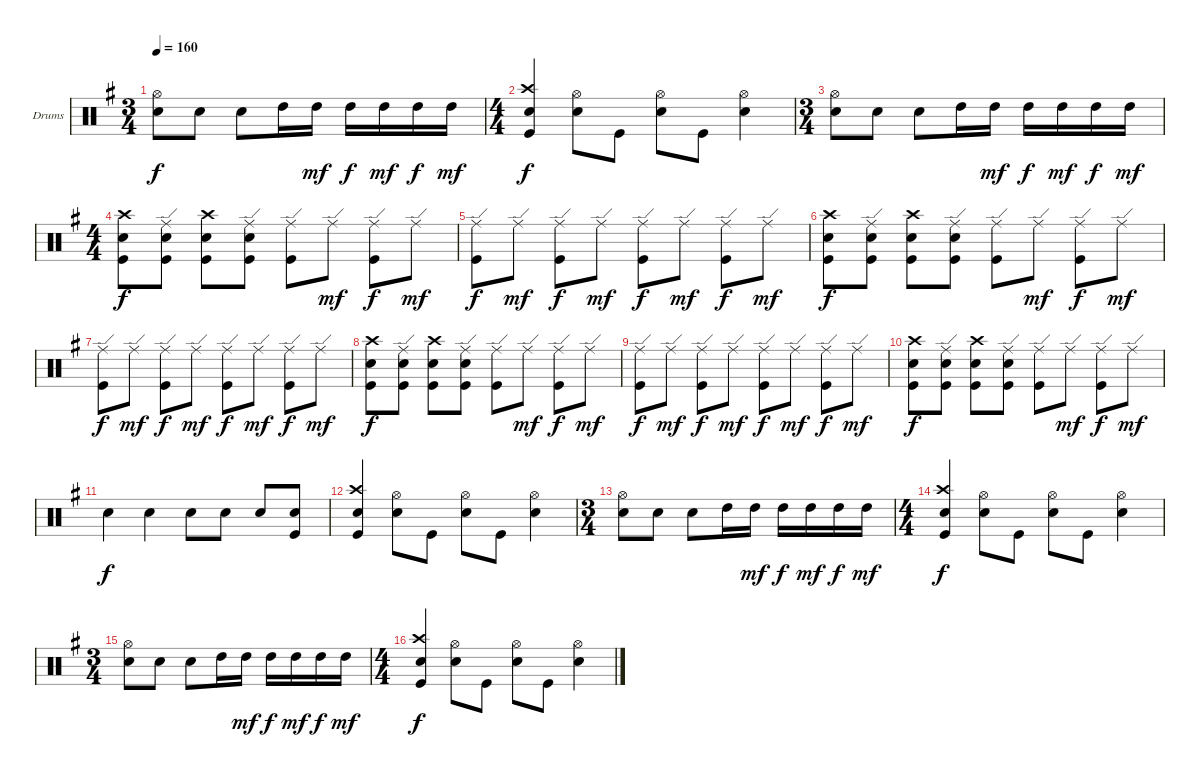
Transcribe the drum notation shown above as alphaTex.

\defaultSystemsLayout 4
\bracketExtendMode groupsimilarinstruments
\firstSystemTrackNameOrientation horizontal
\otherSystemsTrackNameOrientation horizontal
\track ("Drumkit" "Drums") {instrument percussion}
\staff {score}
\articulation defaults
\ts (3 4)
\tempo 160
\clef neutral
\scale
1.07314
\ks g
("Hi-Hat (open)" "Snare (hit) 2").8{dy f} "Snare (hit) 2".8 "Snare (hit) 2".8 "High Tom (hit)".16 "High Tom (hit)".16{dy mf} "High Tom (hit)".16{dy f} "High Tom (hit)".16{dy mf} "High Tom (hit)".16{dy f} "High Tom (hit)".16{dy mf} |
\ts (4 4)
\scale
0.92686 ("Crash high (hit)" "Snare (hit) 2" "Kick (hit)").4{dy f} ("Hi-Hat (open)" "Snare (hit) 2").8 "Kick (hit)".8 ("Hi-Hat (open)" "Snare (hit) 2").8 "Kick (hit)".8 ("Hi-Hat (open)" "Snare (hit) 2").4 |
\ts (3 4)
\scale
1.07314 ("Hi-Hat (open)" "Snare (hit) 2").8 "Snare (hit) 2".8 "Snare (hit) 2".8 "High Tom (hit)".16 "High Tom (hit)".16{dy mf} "High Tom (hit)".16{dy f} "High Tom (hit)".16{dy mf} "High Tom (hit)".16{dy f} "High Tom (hit)".16{dy mf} |
\ts (4 4)
\scale
0.92686 ("Crash high (hit)" "Snare (hit) 2" "Kick (hit)").8{dy f} ("Ride (edge)" "Snare (hit) 2" "Kick (hit)").8 ("Crash high (hit)" "Snare (hit) 2" "Kick (hit)").8 ("Ride (edge)" "Snare (hit) 2" "Kick (hit)").8 ("Ride (edge)" "Kick (hit)").8 "Ride (edge)".8{dy mf} ("Ride (edge)" "Kick (hit)").8{dy f} "Ride (edge)".8{dy mf} |
\scale
1.04288 ("Ride (edge)" "Kick (hit)").8{dy f} "Ride (edge)".8{dy mf} ("Ride (edge)" "Kick (hit)").8{dy f} "Ride (edge)".8{dy mf} ("Ride (edge)" "Kick (hit)").8{dy f} "Ride (edge)".8{dy mf} ("Ride (edge)" "Kick (hit)").8{dy f} "Ride (edge)".8{dy mf} |
\scale
0.957125 ("Crash high (hit)" "Snare (hit) 2" "Kick (hit)").8{dy f} ("Ride (edge)" "Snare (hit) 2" "Kick (hit)").8 ("Crash high (hit)" "Snare (hit) 2" "Kick (hit)").8 ("Ride (edge)" "Snare (hit) 2" "Kick (hit)").8 ("Ride (edge)" "Kick (hit)").8 "Ride (edge)".8{dy mf} ("Ride (edge)" "Kick (hit)").8{dy f} "Ride (edge)".8{dy mf} |
\scale
1.04288 ("Ride (edge)" "Kick (hit)").8{dy f} "Ride (edge)".8{dy mf} ("Ride (edge)" "Kick (hit)").8{dy f} "Ride (edge)".8{dy mf} ("Ride (edge)" "Kick (hit)").8{dy f} "Ride (edge)".8{dy mf} ("Ride (edge)" "Kick (hit)").8{dy f} "Ride (edge)".8{dy mf} |
\scale
0.957125 ("Crash high (hit)" "Snare (hit) 2" "Kick (hit)").8{dy f} ("Ride (edge)" "Snare (hit) 2" "Kick (hit)").8 ("Crash high (hit)" "Snare (hit) 2" "Kick (hit)").8 ("Ride (edge)" "Snare (hit) 2" "Kick (hit)").8 ("Ride (edge)" "Kick (hit)").8 "Ride (edge)".8{dy mf} ("Ride (edge)" "Kick (hit)").8{dy f} "Ride (edge)".8{dy mf} |
\scale
1.04288 ("Ride (edge)" "Kick (hit)").8{dy f} "Ride (edge)".8{dy mf} ("Ride (edge)" "Kick (hit)").8{dy f} "Ride (edge)".8{dy mf} ("Ride (edge)" "Kick (hit)").8{dy f} "Ride (edge)".8{dy mf} ("Ride (edge)" "Kick (hit)").8{dy f} "Ride (edge)".8{dy mf} |
\scale
0.957125 ("Crash high (hit)" "Snare (hit) 2" "Kick (hit)").8{dy f} ("Ride (edge)" "Snare (hit) 2" "Kick (hit)").8 ("Crash high (hit)" "Snare (hit) 2" "Kick (hit)").8 ("Ride (edge)" "Snare (hit) 2" "Kick (hit)").8 ("Ride (edge)" "Kick (hit)").8 "Ride (edge)".8{dy mf} ("Ride (edge)" "Kick (hit)").8{dy f} "Ride (edge)".8{dy mf} |
\scale
1.04288 "Snare (hit) 2".4{dy f} "Snare (hit) 2".4 "Snare (hit) 2".8 "Snare (hit) 2".8 "Snare (hit) 2".8 ("Snare (hit) 2" "Kick (hit)").8 |
\scale
0.957125 ("Crash high (hit)" "Snare (hit) 2" "Kick (hit)").4 ("Hi-Hat (open)" "Snare (hit) 2").8 "Kick (hit)".8 ("Hi-Hat (open)" "Snare (hit) 2").8 "Kick (hit)".8 ("Hi-Hat (open)" "Snare (hit) 2").4 |
\ts (3 4)
\scale
1.07314 ("Hi-Hat (open)" "Snare (hit) 2").8 "Snare (hit) 2".8 "Snare (hit) 2".8 "High Tom (hit)".16 "High Tom (hit)".16{dy mf} "High Tom (hit)".16{dy f} "High Tom (hit)".16{dy mf} "High Tom (hit)".16{dy f} "High Tom (hit)".16{dy mf} |
\ts (4 4)
\scale
0.92686 ("Crash high (hit)" "Snare (hit) 2" "Kick (hit)").4{dy f} ("Hi-Hat (open)" "Snare (hit) 2").8 "Kick (hit)".8 ("Hi-Hat (open)" "Snare (hit) 2").8 "Kick (hit)".8 ("Hi-Hat (open)" "Snare (hit) 2").4 |
\ts (3 4)
\scale
1.07314 ("Hi-Hat (open)" "Snare (hit) 2").8 "Snare (hit) 2".8 "Snare (hit) 2".8 "High Tom (hit)".16 "High Tom (hit)".16{dy mf} "High Tom (hit)".16{dy f} "High Tom (hit)".16{dy mf} "High Tom (hit)".16{dy f} "High Tom (hit)".16{dy mf} |
\ts (4 4)
\scale
0.92686 ("Crash high (hit)" "Snare (hit) 2" "Kick (hit)").4{dy f} ("Hi-Hat (open)" "Snare (hit) 2").8 "Kick (hit)".8 ("Hi-Hat (open)" "Snare (hit) 2").8 "Kick (hit)".8 ("Hi-Hat (open)" "Snare (hit) 2").4
